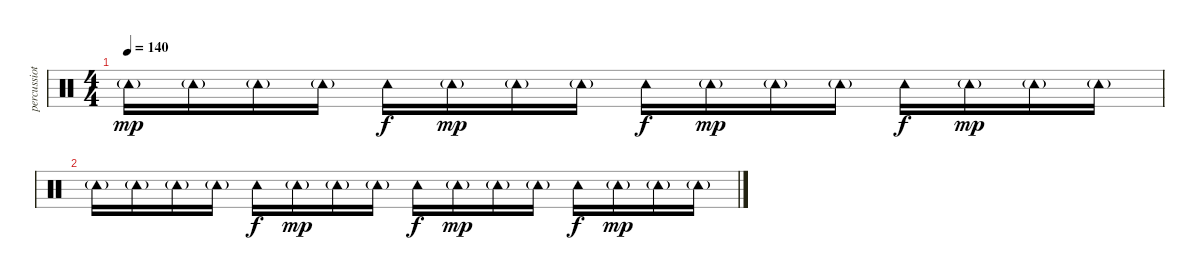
\track ("percussiot" "percussiot") {instrument percussion}
\staff {score}
\articulation defaults
\ts (4 4)
\tempo 140
\clef neutral
\ks c "Tambourine (hit)"{g}.16{dy mp} "Tambourine (hit)"{g}.16 "Tambourine (hit)"{g}.16 "Tambourine (hit)"{g}.16 "Tambourine (hit)".16{dy f} "Tambourine (hit)"{g}.16{dy mp} "Tambourine (hit)"{g}.16 "Tambourine (hit)"{g}.16 "Tambourine (hit)".16{dy f} "Tambourine (hit)"{g}.16{dy mp} "Tambourine (hit)"{g}.16 "Tambourine (hit)"{g}.16 "Tambourine (hit)".16{dy f} "Tambourine (hit)"{g}.16{dy mp} "Tambourine (hit)"{g}.16 "Tambourine (hit)"{g}.16
|
"Tambourine (hit)"{g}.16 "Tambourine (hit)"{g}.16 "Tambourine (hit)"{g}.16 "Tambourine (hit)"{g}.16 "Tambourine (hit)".16{dy f} "Tambourine (hit)"{g}.16{dy mp} "Tambourine (hit)"{g}.16 "Tambourine (hit)"{g}.16 "Tambourine (hit)".16{dy f} "Tambourine (hit)"{g}.16{dy mp} "Tambourine (hit)"{g}.16 "Tambourine (hit)"{g}.16 "Tambourine (hit)".16{dy f} "Tambourine (hit)"{g}.16{dy mp} "Tambourine (hit)"{g}.16 "Tambourine (hit)"{g}.16
